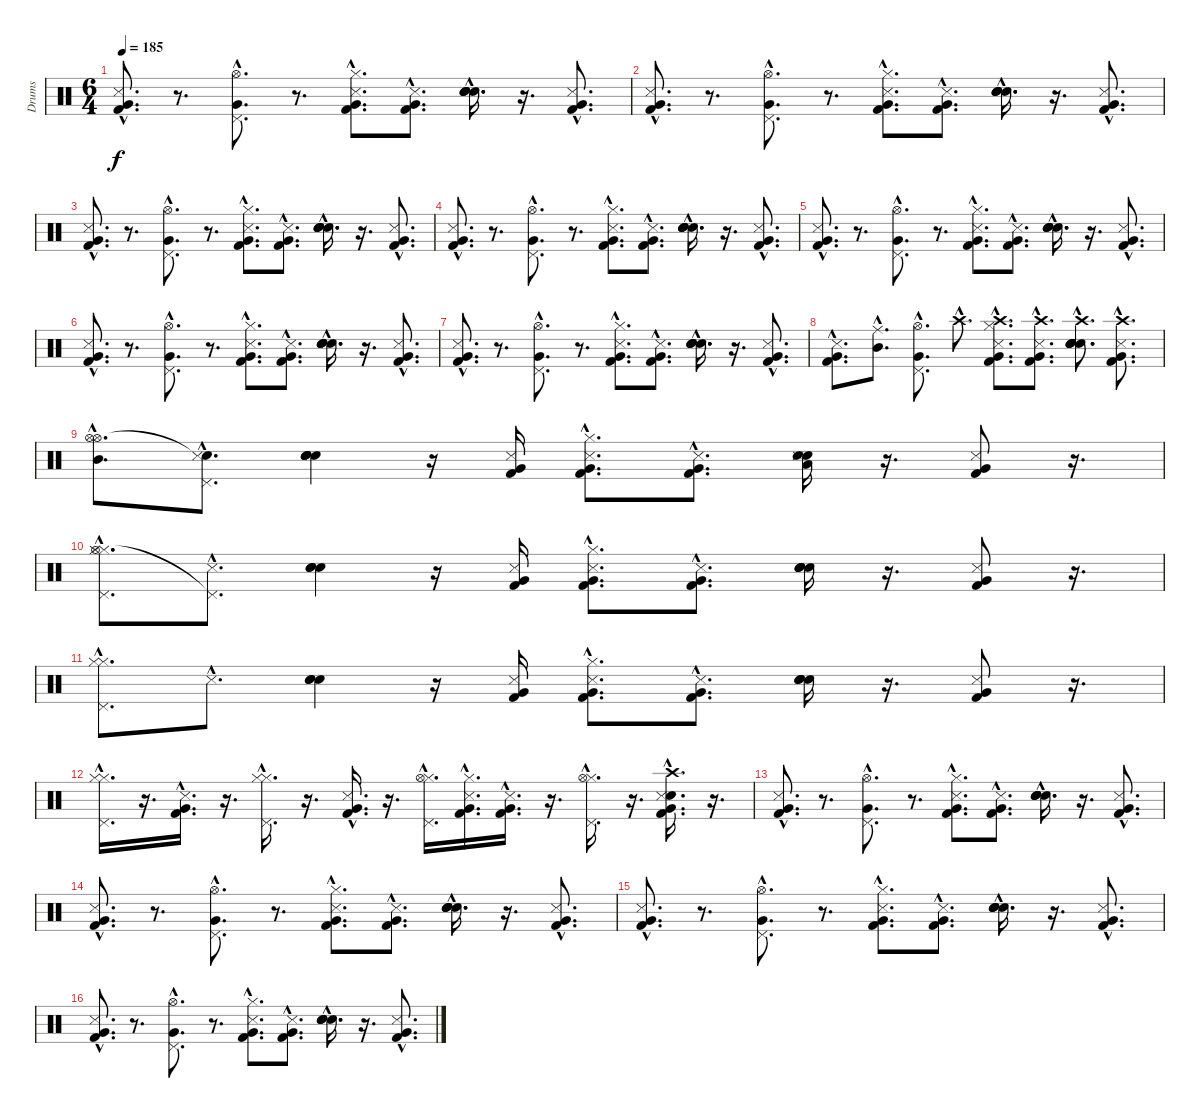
\track ("Drums" "Drums") {instrument percussion}
\staff {score}
\articulation defaults
\ts (6 4)
\tempo 185
\clef neutral
\ks c
("Very Low Tom (hit)"{hac} "Metronome (hit)"{hac} "Kick (hit) 2"{hac}).8{d dy f} r.8{d} ("Very Low Tom (hit)"{hac} "Pedal Hi-Hat (hit)"{hac} "Hi-Hat (open)"{hac}).8{d} r.8{d} ("Hi-Hat (closed)"{hac} "Very Low Tom (hit)"{hac} "Metronome (hit)"{hac} "Kick (hit) 2"{hac}).8{d} ("Very Low Tom (hit)"{hac} "Metronome (hit)"{hac} "Kick (hit) 2"{hac}).8{d} ("Snare (hit) 2"{hac} "Snare (hit) 2"{hac} "Snare (hit) 2"{hac} "Snare (hit) 2"{hac}).16{d} r.16{d} ("Very Low Tom (hit)"{hac} "Metronome (hit)"{hac} "Kick (hit) 2"{hac}).8{d} |
("Very Low Tom (hit)"{hac} "Metronome (hit)"{hac} "Kick (hit) 2"{hac}).8{d} r.8{d} ("Very Low Tom (hit)"{hac} "Pedal Hi-Hat (hit)"{hac} "Hi-Hat (open)"{hac}).8{d} r.8{d} ("Hi-Hat (closed)"{hac} "Very Low Tom (hit)"{hac} "Metronome (hit)"{hac} "Kick (hit) 2"{hac}).8{d} ("Very Low Tom (hit)"{hac} "Metronome (hit)"{hac} "Kick (hit) 2"{hac}).8{d} ("Snare (hit) 2"{hac} "Snare (hit) 2"{hac} "Snare (hit) 2"{hac} "Snare (hit) 2"{hac}).16{d} r.16{d} ("Very Low Tom (hit)"{hac} "Metronome (hit)"{hac} "Kick (hit) 2"{hac}).8{d} |
("Very Low Tom (hit)"{hac} "Metronome (hit)"{hac} "Kick (hit) 2"{hac}).8{d} r.8{d} ("Very Low Tom (hit)"{hac} "Pedal Hi-Hat (hit)"{hac} "Hi-Hat (open)"{hac}).8{d} r.8{d} ("Hi-Hat (closed)"{hac} "Very Low Tom (hit)"{hac} "Metronome (hit)"{hac} "Kick (hit) 2"{hac}).8{d} ("Very Low Tom (hit)"{hac} "Metronome (hit)"{hac} "Kick (hit) 2"{hac}).8{d} ("Snare (hit) 2"{hac} "Snare (hit) 2"{hac} "Snare (hit) 2"{hac} "Snare (hit) 2"{hac}).16{d} r.16{d} ("Very Low Tom (hit)"{hac} "Metronome (hit)"{hac} "Kick (hit) 2"{hac}).8{d} |
("Very Low Tom (hit)"{hac} "Metronome (hit)"{hac} "Kick (hit) 2"{hac}).8{d} r.8{d} ("Very Low Tom (hit)"{hac} "Pedal Hi-Hat (hit)"{hac} "Hi-Hat (open)"{hac}).8{d} r.8{d} ("Hi-Hat (closed)"{hac} "Very Low Tom (hit)"{hac} "Metronome (hit)"{hac} "Kick (hit) 2"{hac}).8{d} ("Very Low Tom (hit)"{hac} "Metronome (hit)"{hac} "Kick (hit) 2"{hac}).8{d} ("Snare (hit) 2"{hac} "Snare (hit) 2"{hac} "Snare (hit) 2"{hac} "Snare (hit) 2"{hac}).16{d} r.16{d} ("Very Low Tom (hit)"{hac} "Metronome (hit)"{hac} "Kick (hit) 2"{hac}).8{d} |
("Very Low Tom (hit)"{hac} "Metronome (hit)"{hac} "Kick (hit) 2"{hac}).8{d} r.8{d} ("Very Low Tom (hit)"{hac} "Pedal Hi-Hat (hit)"{hac} "Hi-Hat (open)"{hac}).8{d} r.8{d} ("Hi-Hat (closed)"{hac} "Very Low Tom (hit)"{hac} "Metronome (hit)"{hac} "Kick (hit) 2"{hac}).8{d} ("Very Low Tom (hit)"{hac} "Metronome (hit)"{hac} "Kick (hit) 2"{hac}).8{d} ("Snare (hit) 2"{hac} "Snare (hit) 2"{hac} "Snare (hit) 2"{hac} "Snare (hit) 2"{hac}).16{d} r.16{d} ("Very Low Tom (hit)"{hac} "Metronome (hit)"{hac} "Kick (hit) 2"{hac}).8{d} |
("Very Low Tom (hit)"{hac} "Metronome (hit)"{hac} "Kick (hit) 2"{hac}).8{d} r.8{d} ("Very Low Tom (hit)"{hac} "Pedal Hi-Hat (hit)"{hac} "Hi-Hat (open)"{hac}).8{d} r.8{d} ("Hi-Hat (closed)"{hac} "Very Low Tom (hit)"{hac} "Metronome (hit)"{hac} "Kick (hit) 2"{hac}).8{d} ("Very Low Tom (hit)"{hac} "Metronome (hit)"{hac} "Kick (hit) 2"{hac}).8{d} ("Snare (hit) 2"{hac} "Snare (hit) 2"{hac} "Snare (hit) 2"{hac} "Snare (hit) 2"{hac}).16{d} r.16{d} ("Very Low Tom (hit)"{hac} "Metronome (hit)"{hac} "Kick (hit) 2"{hac}).8{d} |
("Very Low Tom (hit)"{hac} "Metronome (hit)"{hac} "Kick (hit) 2"{hac}).8{d} r.8{d} ("Very Low Tom (hit)"{hac} "Pedal Hi-Hat (hit)"{hac} "Hi-Hat (open)"{hac}).8{d} r.8{d} ("Hi-Hat (closed)"{hac} "Very Low Tom (hit)"{hac} "Metronome (hit)"{hac} "Kick (hit) 2"{hac}).8{d} ("Very Low Tom (hit)"{hac} "Metronome (hit)"{hac} "Kick (hit) 2"{hac}).8{d} ("Snare (hit) 2"{hac} "Snare (hit) 2"{hac} "Snare (hit) 2"{hac} "Snare (hit) 2"{hac}).16{d} r.16{d} ("Very Low Tom (hit)"{hac} "Metronome (hit)"{hac} "Kick (hit) 2"{hac}).8{d} |
("Very Low Tom (hit)"{hac} "Metronome (hit)"{hac} "Kick (hit) 2"{hac}).8{d} ("Mid Tom (hit)"{hac} "Ride (middle)"{hac}).8{d} ("Very Low Tom (hit)"{hac} "Pedal Hi-Hat (hit)"{hac} "Hi-Hat (open)"{hac}).8{d} "Crash high (hit)"{hac}.8{d} ("Crash high (hit)"{hac} "Hi-Hat (closed)"{hac} "Very Low Tom (hit)"{hac} "Metronome (hit)"{hac} "Kick (hit) 2"{hac}).8{d} ("Crash high (hit)"{hac} "Very Low Tom (hit)"{hac} "Metronome (hit)"{hac} "Kick (hit) 2"{hac}).8{d} ("Snare (hit) 2"{hac} "Crash high (hit)"{hac} "Snare (hit) 2"{hac} "Snare (hit) 2"{hac} "Snare (hit) 2"{hac}).8{d} ("Crash high (hit)"{hac} "Very Low Tom (hit)"{hac} "Metronome (hit)"{hac} "Kick (hit) 2"{hac}).8{d} |
("Hi-Hat (open)"{hac} "Hi-Hat (open)"{hac} "Mid Tom (hit)"{hac}).8{d} ("Snare (hit)"{hac t} "Pedal Hi-Hat (hit)"{hac} "Metronome (hit)"{hac}).8{d} ("Snare (hit) 2" "Snare (hit) 2" "Electric Snare (hit)" "Electric Snare (hit)").4 r.16 ("Very Low Tom (hit)" "Metronome (hit)" "Kick (hit) 2").16 ("Hi-Hat (closed)"{hac} "Very Low Tom (hit)"{hac} "Metronome (hit)"{hac} "Kick (hit) 2"{hac}).8{d} ("Very Low Tom (hit)"{hac} "Metronome (hit)"{hac} "Kick (hit) 2"{hac}).8{d} ("Snare (hit) 2" "Low Tom (hit)" "Snare (hit) 2" "Snare (side stick) 3").16 r.16{d} ("Very Low Tom (hit)" "Metronome (hit)" "Kick (hit) 2").8 r.16{d} |
("Hi-Hat (closed)"{hac} "Hi-Hat (open)"{hac} "Pedal Hi-Hat (hit)"{hac} "Hi-Hat (closed)"{hac}).8{d} ("Pedal Hi-Hat (hit)"{hac t} "Metronome (hit)"{hac}).8{d} ("Snare (hit) 2" "Snare (hit) 2" "Snare (hit) 2").4 r.16 ("Very Low Tom (hit)" "Metronome (hit)" "Kick (hit) 2").16 ("Hi-Hat (closed)"{hac} "Very Low Tom (hit)"{hac} "Metronome (hit)"{hac} "Kick (hit) 2"{hac}).8{d} ("Very Low Tom (hit)"{hac} "Metronome (hit)"{hac} "Kick (hit) 2"{hac}).8{d} ("Snare (hit) 2" "Snare (hit) 2" "Snare (hit) 2" "Snare (hit) 2").16 r.16{d} ("Very Low Tom (hit)" "Metronome (hit)" "Kick (hit) 2").8 r.16{d} |
("Hi-Hat (closed)"{hac} "Pedal Hi-Hat (hit)"{hac} "Hi-Hat (closed)"{hac}).8{d} "Metronome (hit)"{hac}.8{d} ("Snare (hit) 2" "Snare (hit) 2" "Snare (hit) 2").4 r.16 ("Very Low Tom (hit)" "Metronome (hit)" "Kick (hit) 2").16 ("Hi-Hat (closed)"{hac} "Very Low Tom (hit)"{hac} "Metronome (hit)"{hac} "Kick (hit) 2"{hac}).8{d} ("Very Low Tom (hit)"{hac} "Metronome (hit)"{hac} "Kick (hit) 2"{hac}).8{d} ("Snare (hit) 2" "Snare (hit) 2" "Snare (hit) 2" "Snare (hit) 2").16 r.16{d} ("Very Low Tom (hit)" "Metronome (hit)" "Kick (hit) 2").8 r.16{d} |
("Hi-Hat (closed)"{hac} "Pedal Hi-Hat (hit)"{hac} "Hi-Hat (closed)"{hac}).16{d} r.16{d} ("Very Low Tom (hit)"{hac} "Metronome (hit)"{hac} "Kick (hit) 2"{hac}).16{d} r.16{d} ("Hi-Hat (closed)"{hac} "Pedal Hi-Hat (hit)"{hac} "Hi-Hat (closed)"{hac}).16{d} r.16{d} ("Very Low Tom (hit)"{hac} "Metronome (hit)"{hac} "Kick (hit) 2"{hac}).16{d} r.16{d} ("Hi-Hat (closed)"{hac} "Pedal Hi-Hat (hit)"{hac} "Hi-Hat (open)"{hac}).16{d} ("Hi-Hat (closed)"{hac} "Very Low Tom (hit)"{hac} "Metronome (hit)"{hac} "Kick (hit) 2"{hac}).16{d} ("Very Low Tom (hit)"{hac} "Metronome (hit)"{hac} "Kick (hit) 2"{hac}).16{d} r.16{d} ("Hi-Hat (closed)"{hac} "Pedal Hi-Hat (hit)"{hac} "Hi-Hat (open)"{hac}).16{d} r.16{d} ("Crash high (hit)"{hac} "Snare (hit) 2"{hac} "Very Low Tom (hit)"{hac} "Metronome (hit)"{hac} "Kick (hit) 2"{hac}).16{d} r.16{d} |
("Very Low Tom (hit)"{hac} "Metronome (hit)"{hac} "Kick (hit) 2"{hac}).8{d} r.8{d} ("Very Low Tom (hit)"{hac} "Pedal Hi-Hat (hit)"{hac} "Hi-Hat (open)"{hac}).8{d} r.8{d} ("Hi-Hat (closed)"{hac} "Very Low Tom (hit)"{hac} "Metronome (hit)"{hac} "Kick (hit) 2"{hac}).8{d} ("Very Low Tom (hit)"{hac} "Metronome (hit)"{hac} "Kick (hit) 2"{hac}).8{d} ("Snare (hit) 2"{hac} "Snare (hit) 2"{hac} "Snare (hit) 2"{hac} "Snare (hit) 2"{hac}).16{d} r.16{d} ("Very Low Tom (hit)"{hac} "Metronome (hit)"{hac} "Kick (hit) 2"{hac}).8{d} |
("Very Low Tom (hit)"{hac} "Metronome (hit)"{hac} "Kick (hit) 2"{hac}).8{d} r.8{d} ("Very Low Tom (hit)"{hac} "Pedal Hi-Hat (hit)"{hac} "Hi-Hat (open)"{hac}).8{d} r.8{d} ("Hi-Hat (closed)"{hac} "Very Low Tom (hit)"{hac} "Metronome (hit)"{hac} "Kick (hit) 2"{hac}).8{d} ("Very Low Tom (hit)"{hac} "Metronome (hit)"{hac} "Kick (hit) 2"{hac}).8{d} ("Snare (hit) 2"{hac} "Snare (hit) 2"{hac} "Snare (hit) 2"{hac} "Snare (hit) 2"{hac}).16{d} r.16{d} ("Very Low Tom (hit)"{hac} "Metronome (hit)"{hac} "Kick (hit) 2"{hac}).8{d} |
("Very Low Tom (hit)"{hac} "Metronome (hit)"{hac} "Kick (hit) 2"{hac}).8{d} r.8{d} ("Very Low Tom (hit)"{hac} "Pedal Hi-Hat (hit)"{hac} "Hi-Hat (open)"{hac}).8{d} r.8{d} ("Hi-Hat (closed)"{hac} "Very Low Tom (hit)"{hac} "Metronome (hit)"{hac} "Kick (hit) 2"{hac}).8{d} ("Very Low Tom (hit)"{hac} "Metronome (hit)"{hac} "Kick (hit) 2"{hac}).8{d} ("Snare (hit) 2"{hac} "Snare (hit) 2"{hac} "Snare (hit) 2"{hac} "Snare (hit) 2"{hac}).16{d} r.16{d} ("Very Low Tom (hit)"{hac} "Metronome (hit)"{hac} "Kick (hit) 2"{hac}).8{d} |
("Very Low Tom (hit)"{hac} "Metronome (hit)"{hac} "Kick (hit) 2"{hac}).8{d} r.8{d} ("Very Low Tom (hit)"{hac} "Pedal Hi-Hat (hit)"{hac} "Hi-Hat (open)"{hac}).8{d} r.8{d} ("Hi-Hat (closed)"{hac} "Very Low Tom (hit)"{hac} "Metronome (hit)"{hac} "Kick (hit) 2"{hac}).8{d} ("Very Low Tom (hit)"{hac} "Metronome (hit)"{hac} "Kick (hit) 2"{hac}).8{d} ("Snare (hit) 2"{hac} "Snare (hit) 2"{hac} "Snare (hit) 2"{hac} "Snare (hit) 2"{hac}).16{d} r.16{d} ("Very Low Tom (hit)"{hac} "Metronome (hit)"{hac} "Kick (hit) 2"{hac}).8{d}
